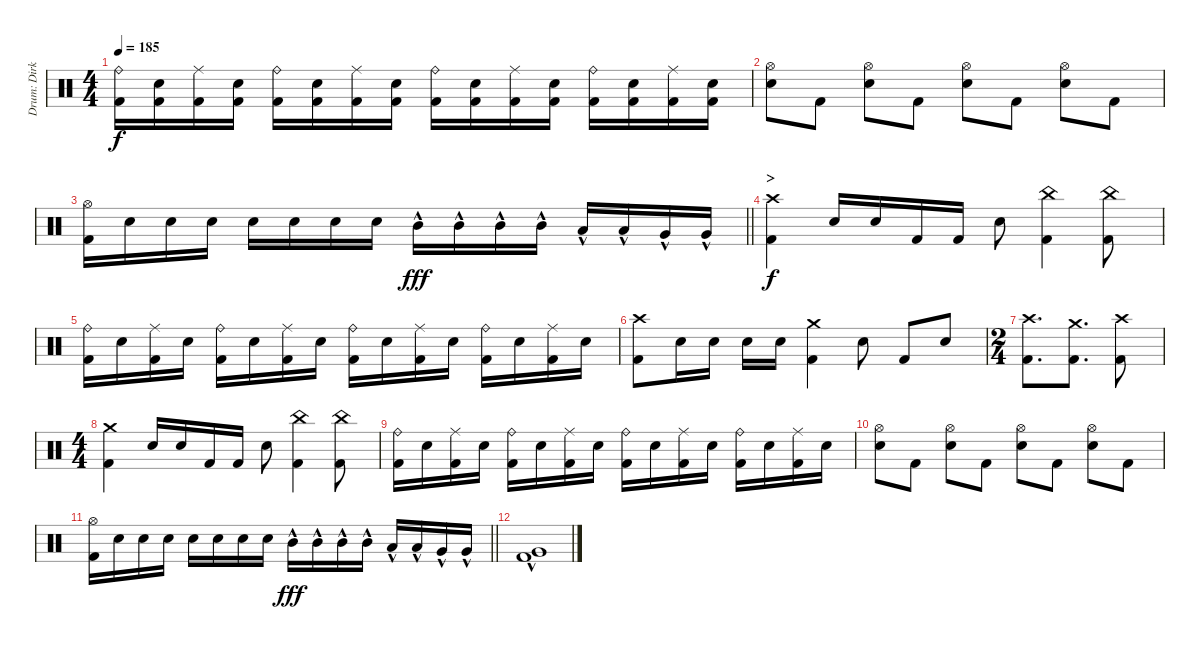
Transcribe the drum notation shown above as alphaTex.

\track ("Drum: Dirk" "Drum: Dirk") {instrument percussion}
\staff {score}
\articulation defaults
\ts (4 4)
\tempo 185
\clef neutral
\ks c
("Ride (bell)" "Kick (hit) 2").16{dy f} ("Electric Snare (hit)" "Kick (hit) 2").16 ("Ride (middle)" "Kick (hit) 2").16 ("Electric Snare (hit)" "Kick (hit) 2").16 ("Ride (bell)" "Kick (hit) 2").16 ("Electric Snare (hit)" "Kick (hit) 2").16 ("Ride (middle)" "Kick (hit) 2").16 ("Electric Snare (hit)" "Kick (hit) 2").16 ("Ride (bell)" "Kick (hit) 2").16 ("Electric Snare (hit)" "Kick (hit) 2").16 ("Ride (middle)" "Kick (hit) 2").16 ("Electric Snare (hit)" "Kick (hit) 2").16 ("Ride (bell)" "Kick (hit) 2").16 ("Electric Snare (hit)" "Kick (hit) 2").16 ("Ride (middle)" "Kick (hit) 2").16 ("Electric Snare (hit)" "Kick (hit) 2").16 |
("Hi-Hat (open)" "Electric Snare (hit)").8 "Kick (hit) 2".8 ("Hi-Hat (open)" "Electric Snare (hit)").8 "Kick (hit) 2".8 ("Hi-Hat (open)" "Electric Snare (hit)").8 "Kick (hit) 2".8 ("Hi-Hat (open)" "Electric Snare (hit)").8 "Kick (hit) 2".8 |
\barLineRight lightlight
("Hi-Hat (open)" "Kick (hit) 2").16 "Electric Snare (hit)".16 "Electric Snare (hit)".16 "Electric Snare (hit)".16 "Electric Snare (hit)".16 "Electric Snare (hit)".16 "Electric Snare (hit)".16 "Electric Snare (hit)".16 "Mid Tom (hit)"{hac}.16{dy fff} "Mid Tom (hit)"{hac}.16 "Mid Tom (hit)"{hac}.16 "Mid Tom (hit)"{hac}.16 "Low Tom (hit)"{hac}.16 "Low Tom (hit)"{hac}.16 "Very Low Tom (hit)"{hac}.16 "Very Low Tom (hit)"{hac}.16 |
\section ("" ">")
("Crash high (hit)" "Kick (hit) 2").4{dy f} "Electric Snare (hit)".16 "Electric Snare (hit)".16 "Kick (hit) 2".16 "Kick (hit) 2".16 "Electric Snare (hit)".8 ("China (hit)" "Kick (hit) 2").4 ("China (hit)" "Kick (hit) 2").8 |
("Ride (bell)" "Kick (hit) 2").16 "Electric Snare (hit)".16 ("Ride (middle)" "Kick (hit) 2").16 "Electric Snare (hit)".16 ("Ride (bell)" "Kick (hit) 2").16 "Electric Snare (hit)".16 ("Ride (middle)" "Kick (hit) 2").16 "Electric Snare (hit)".16 ("Ride (bell)" "Kick (hit) 2").16 "Electric Snare (hit)".16 ("Ride (middle)" "Kick (hit) 2").16 "Electric Snare (hit)".16 ("Ride (bell)" "Kick (hit) 2").16 "Electric Snare (hit)".16 ("Ride (middle)" "Kick (hit) 2").16 "Electric Snare (hit)".16 |
("Crash high (hit)" "Kick (hit) 2").8 "Electric Snare (hit)".16 "Electric Snare (hit)".16 "Electric Snare (hit)".16 "Electric Snare (hit)".16 ("Crash medium (hit)" "Kick (hit) 2").4 "Electric Snare (hit)".8 "Kick (hit) 2".8 "Electric Snare (hit)".8 |
\ts (2 4)
("Crash high (hit)" "Kick (hit) 2").8{d} ("Crash medium (hit)" "Kick (hit) 2").8{d} ("Crash high (hit)" "Kick (hit) 2").8 |
\ts (4 4)
("Crash medium (hit)" "Kick (hit) 2").4 "Electric Snare (hit)".16 "Electric Snare (hit)".16 "Kick (hit) 2".16 "Kick (hit) 2".16 "Electric Snare (hit)".8 ("China (hit)" "Kick (hit) 2").4 ("China (hit)" "Kick (hit) 2").8 |
("Ride (bell)" "Kick (hit) 2").16 "Electric Snare (hit)".16 ("Ride (middle)" "Kick (hit) 2").16 "Electric Snare (hit)".16 ("Ride (bell)" "Kick (hit) 2").16 "Electric Snare (hit)".16 ("Ride (middle)" "Kick (hit) 2").16 "Electric Snare (hit)".16 ("Ride (bell)" "Kick (hit) 2").16 "Electric Snare (hit)".16 ("Ride (middle)" "Kick (hit) 2").16 "Electric Snare (hit)".16 ("Ride (bell)" "Kick (hit) 2").16 "Electric Snare (hit)".16 ("Ride (middle)" "Kick (hit) 2").16 "Electric Snare (hit)".16 |
("Hi-Hat (open)" "Electric Snare (hit)").8 "Kick (hit) 2".8 ("Hi-Hat (open)" "Electric Snare (hit)").8 "Kick (hit) 2".8 ("Hi-Hat (open)" "Electric Snare (hit)").8 "Kick (hit) 2".8 ("Hi-Hat (open)" "Electric Snare (hit)").8 "Kick (hit) 2".8 |
\barLineRight lightlight
("Hi-Hat (open)" "Kick (hit) 2").16 "Electric Snare (hit)".16 "Electric Snare (hit)".16 "Electric Snare (hit)".16 "Electric Snare (hit)".16 "Electric Snare (hit)".16 "Electric Snare (hit)".16 "Electric Snare (hit)".16 "Mid Tom (hit)"{hac}.16{dy fff} "Mid Tom (hit)"{hac}.16 "Mid Tom (hit)"{hac}.16 "Mid Tom (hit)"{hac}.16 "Low Tom (hit)"{hac}.16 "Low Tom (hit)"{hac}.16 "Very Low Tom (hit)"{hac}.16 "Very Low Tom (hit)"{hac}.16 |
("Very Low Tom (hit)"{hac} "Kick (hit) 2").1
